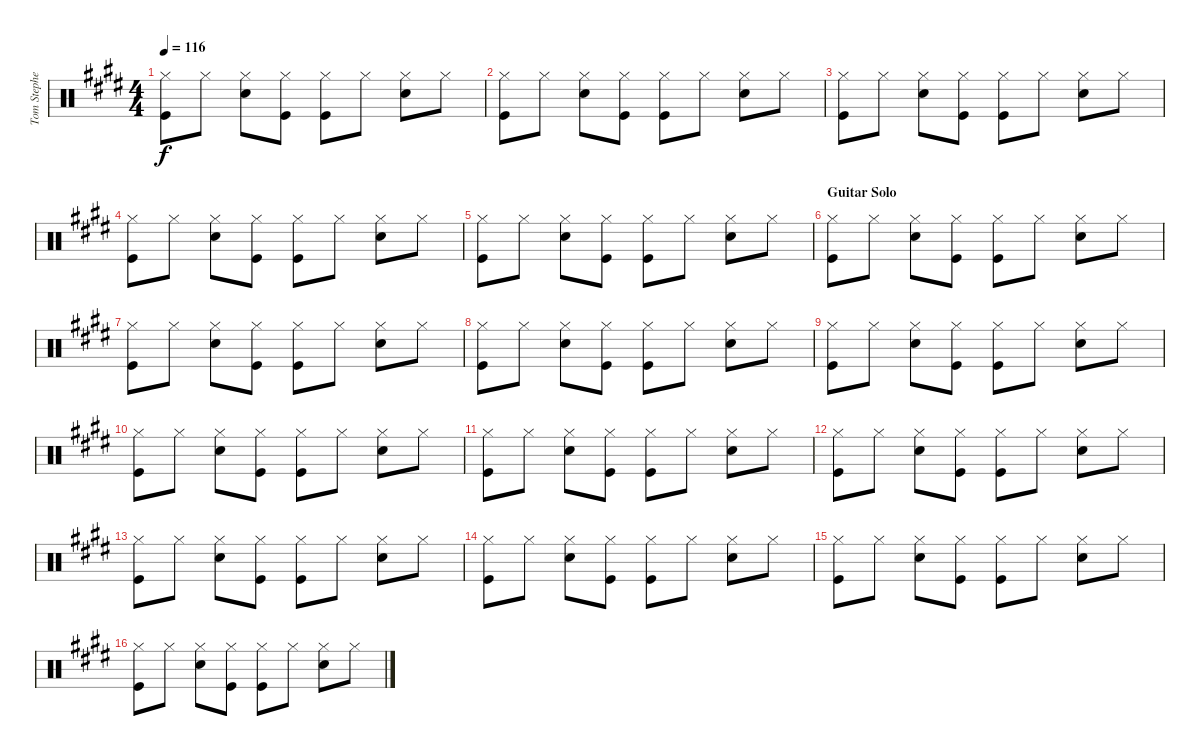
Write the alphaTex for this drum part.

\track ("Tom Stephen" "Tom Stephe") {instrument percussion}
\staff {score}
\articulation defaults
\ts (4 4)
\tempo 116
\clef neutral
\ks e
("Kick (hit)" "Hi-Hat (closed)").8{dy f} "Hi-Hat (closed)".8 ("Snare (hit) 2" "Hi-Hat (closed)").8 ("Kick (hit)" "Hi-Hat (closed)").8 ("Kick (hit)" "Hi-Hat (closed)").8 "Hi-Hat (closed)".8 ("Snare (hit) 2" "Hi-Hat (closed)").8 "Hi-Hat (closed)".8 |
("Kick (hit)" "Hi-Hat (closed)").8 "Hi-Hat (closed)".8 ("Snare (hit) 2" "Hi-Hat (closed)").8 ("Kick (hit)" "Hi-Hat (closed)").8 ("Kick (hit)" "Hi-Hat (closed)").8 "Hi-Hat (closed)".8 ("Snare (hit) 2" "Hi-Hat (closed)").8 "Hi-Hat (closed)".8 |
("Kick (hit)" "Hi-Hat (closed)").8 "Hi-Hat (closed)".8 ("Snare (hit) 2" "Hi-Hat (closed)").8 ("Kick (hit)" "Hi-Hat (closed)").8 ("Kick (hit)" "Hi-Hat (closed)").8 "Hi-Hat (closed)".8 ("Snare (hit) 2" "Hi-Hat (closed)").8 "Hi-Hat (closed)".8 |
("Kick (hit)" "Hi-Hat (closed)").8 "Hi-Hat (closed)".8 ("Snare (hit) 2" "Hi-Hat (closed)").8 ("Kick (hit)" "Hi-Hat (closed)").8 ("Kick (hit)" "Hi-Hat (closed)").8 "Hi-Hat (closed)".8 ("Snare (hit) 2" "Hi-Hat (closed)").8 "Hi-Hat (closed)".8 |
("Kick (hit)" "Hi-Hat (closed)").8 "Hi-Hat (closed)".8 ("Snare (hit) 2" "Hi-Hat (closed)").8 ("Kick (hit)" "Hi-Hat (closed)").8 ("Kick (hit)" "Hi-Hat (closed)").8 "Hi-Hat (closed)".8 ("Snare (hit) 2" "Hi-Hat (closed)").8 "Hi-Hat (closed)".8 |
\section ("" "Guitar Solo")
("Kick (hit)" "Hi-Hat (closed)").8 "Hi-Hat (closed)".8 ("Snare (hit) 2" "Hi-Hat (closed)").8 ("Kick (hit)" "Hi-Hat (closed)").8 ("Kick (hit)" "Hi-Hat (closed)").8 "Hi-Hat (closed)".8 ("Snare (hit) 2" "Hi-Hat (closed)").8 "Hi-Hat (closed)".8 |
("Kick (hit)" "Hi-Hat (closed)").8 "Hi-Hat (closed)".8 ("Snare (hit) 2" "Hi-Hat (closed)").8 ("Kick (hit)" "Hi-Hat (closed)").8 ("Kick (hit)" "Hi-Hat (closed)").8 "Hi-Hat (closed)".8 ("Snare (hit) 2" "Hi-Hat (closed)").8 "Hi-Hat (closed)".8 |
("Kick (hit)" "Hi-Hat (closed)").8 "Hi-Hat (closed)".8 ("Snare (hit) 2" "Hi-Hat (closed)").8 ("Kick (hit)" "Hi-Hat (closed)").8 ("Kick (hit)" "Hi-Hat (closed)").8 "Hi-Hat (closed)".8 ("Snare (hit) 2" "Hi-Hat (closed)").8 "Hi-Hat (closed)".8 |
("Kick (hit)" "Hi-Hat (closed)").8 "Hi-Hat (closed)".8 ("Snare (hit) 2" "Hi-Hat (closed)").8 ("Kick (hit)" "Hi-Hat (closed)").8 ("Kick (hit)" "Hi-Hat (closed)").8 "Hi-Hat (closed)".8 ("Snare (hit) 2" "Hi-Hat (closed)").8 "Hi-Hat (closed)".8 |
("Kick (hit)" "Hi-Hat (closed)").8 "Hi-Hat (closed)".8 ("Snare (hit) 2" "Hi-Hat (closed)").8 ("Kick (hit)" "Hi-Hat (closed)").8 ("Kick (hit)" "Hi-Hat (closed)").8 "Hi-Hat (closed)".8 ("Snare (hit) 2" "Hi-Hat (closed)").8 "Hi-Hat (closed)".8 |
("Kick (hit)" "Hi-Hat (closed)").8 "Hi-Hat (closed)".8 ("Snare (hit) 2" "Hi-Hat (closed)").8 ("Kick (hit)" "Hi-Hat (closed)").8 ("Kick (hit)" "Hi-Hat (closed)").8 "Hi-Hat (closed)".8 ("Snare (hit) 2" "Hi-Hat (closed)").8 "Hi-Hat (closed)".8 |
("Kick (hit)" "Hi-Hat (closed)").8 "Hi-Hat (closed)".8 ("Snare (hit) 2" "Hi-Hat (closed)").8 ("Kick (hit)" "Hi-Hat (closed)").8 ("Kick (hit)" "Hi-Hat (closed)").8 "Hi-Hat (closed)".8 ("Snare (hit) 2" "Hi-Hat (closed)").8 "Hi-Hat (closed)".8 |
("Kick (hit)" "Hi-Hat (closed)").8 "Hi-Hat (closed)".8 ("Snare (hit) 2" "Hi-Hat (closed)").8 ("Kick (hit)" "Hi-Hat (closed)").8 ("Kick (hit)" "Hi-Hat (closed)").8 "Hi-Hat (closed)".8 ("Snare (hit) 2" "Hi-Hat (closed)").8 "Hi-Hat (closed)".8 |
("Kick (hit)" "Hi-Hat (closed)").8 "Hi-Hat (closed)".8 ("Snare (hit) 2" "Hi-Hat (closed)").8 ("Kick (hit)" "Hi-Hat (closed)").8 ("Kick (hit)" "Hi-Hat (closed)").8 "Hi-Hat (closed)".8 ("Snare (hit) 2" "Hi-Hat (closed)").8 "Hi-Hat (closed)".8 |
("Kick (hit)" "Hi-Hat (closed)").8 "Hi-Hat (closed)".8 ("Snare (hit) 2" "Hi-Hat (closed)").8 ("Kick (hit)" "Hi-Hat (closed)").8 ("Kick (hit)" "Hi-Hat (closed)").8 "Hi-Hat (closed)".8 ("Snare (hit) 2" "Hi-Hat (closed)").8 "Hi-Hat (closed)".8 |
("Kick (hit)" "Hi-Hat (closed)").8 "Hi-Hat (closed)".8 ("Snare (hit) 2" "Hi-Hat (closed)").8 ("Kick (hit)" "Hi-Hat (closed)").8 ("Kick (hit)" "Hi-Hat (closed)").8 "Hi-Hat (closed)".8 ("Snare (hit) 2" "Hi-Hat (closed)").8 "Hi-Hat (closed)".8
